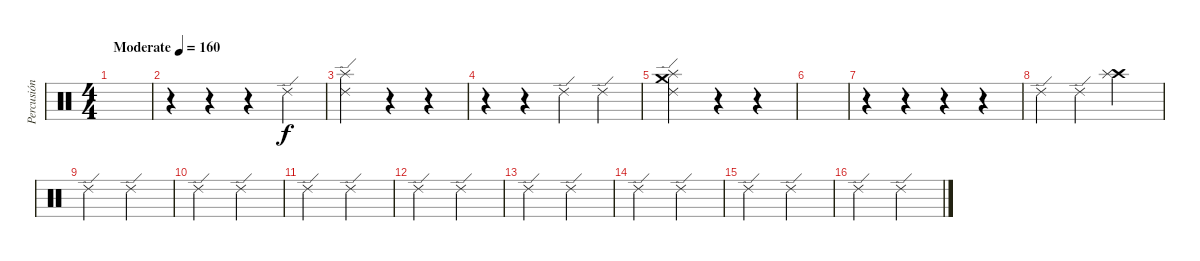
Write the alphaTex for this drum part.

\track ("Percusión" "Percusión") {instrument percussion}
\staff {score}
\articulation defaults
\ts (4 4)
\tempo (160 "Moderate")
\clef neutral
\ks c
|
r.4 r.4 r.4 "Ride (edge) 2".4 |
("Splash (hit)" "Ride (edge) 2").2 r.4 r.4 |
r.4 r.4 "Ride (edge) 2".4 "Ride (edge) 2".4 |
("Splash (hit)" "Crash medium (hit)" "Ride (edge) 2").2 r.4 r.4 |
|
r.4 r.4 r.4 r.4 |
"Ride (edge) 2".4 "Ride (edge) 2".4 ("Crash high (hit)" "Splash (hit)").2 |
"Ride (edge) 2".2 "Ride (edge) 2".2 |
"Ride (edge) 2".2 "Ride (edge) 2".2 |
"Ride (edge) 2".2 "Ride (edge) 2".2 |
"Ride (edge) 2".2 "Ride (edge) 2".2 |
"Ride (edge) 2".2 "Ride (edge) 2".2 |
"Ride (edge) 2".2 "Ride (edge) 2".2 |
"Ride (edge) 2".2 "Ride (edge) 2".2 |
"Ride (edge) 2".2 "Ride (edge) 2".2
